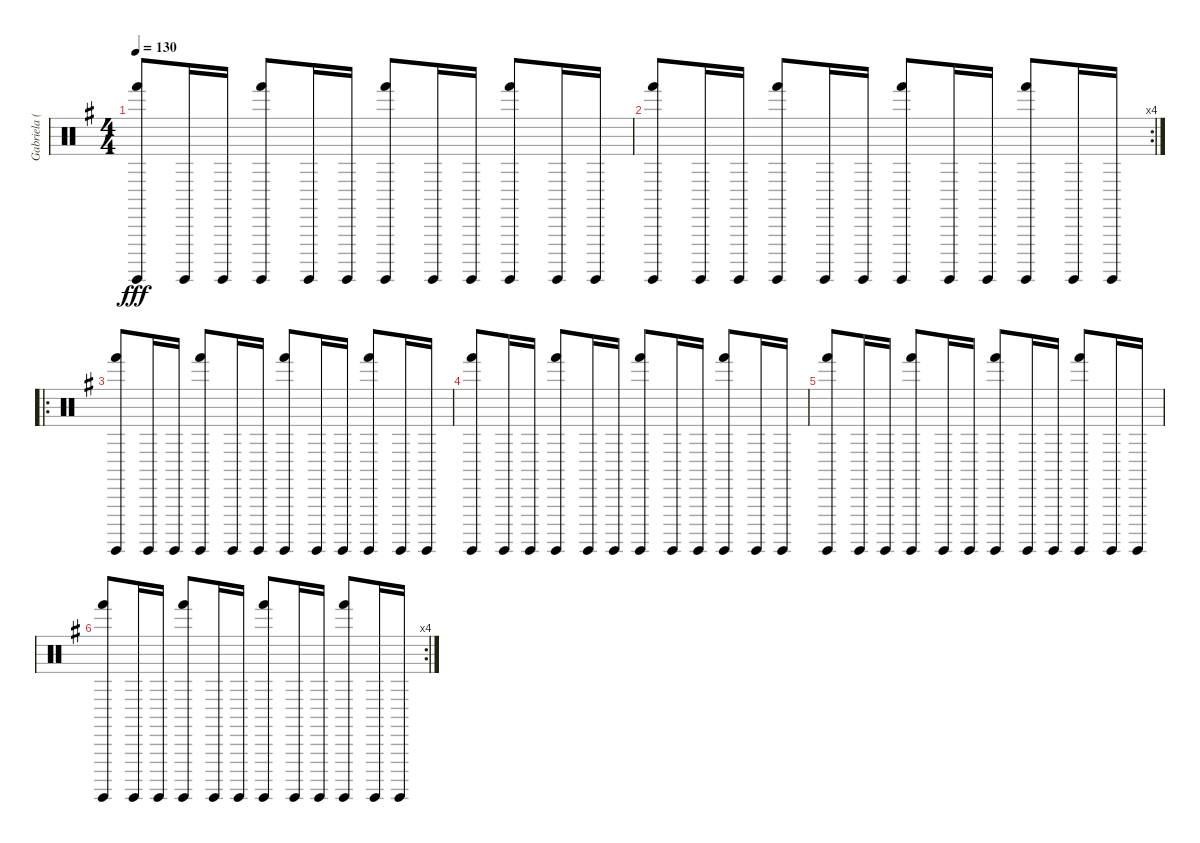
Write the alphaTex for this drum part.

\track ("Gabriela (Percussion)" "Gabriela (") {instrument percussion}
\staff {score}
\articulation defaults
\ts (4 4)
\tempo 130
\clef neutral
\ks eminor
("Hand (hit)" "Surdo (hit)").8{dy fff} "Surdo (hit)".16 "Surdo (hit)".16 ("Hand (hit)" "Surdo (hit)").8 "Surdo (hit)".16 "Surdo (hit)".16 ("Hand (hit)" "Surdo (hit)").8 "Surdo (hit)".16 "Surdo (hit)".16 ("Hand (hit)" "Surdo (hit)").8 "Surdo (hit)".16 "Surdo (hit)".16 |
\rc 4
("Hand (hit)" "Surdo (hit)").8 "Surdo (hit)".16 "Surdo (hit)".16 ("Hand (hit)" "Surdo (hit)").8 "Surdo (hit)".16 "Surdo (hit)".16 ("Hand (hit)" "Surdo (hit)").8 "Surdo (hit)".16 "Surdo (hit)".16 ("Hand (hit)" "Surdo (hit)").8 "Surdo (hit)".16 "Surdo (hit)".16 |
\ro
("Hand (hit)" "Surdo (hit)").8 "Surdo (hit)".16 "Surdo (hit)".16 ("Hand (hit)" "Surdo (hit)").8 "Surdo (hit)".16 "Surdo (hit)".16 ("Hand (hit)" "Surdo (hit)").8 "Surdo (hit)".16 "Surdo (hit)".16 ("Hand (hit)" "Surdo (hit)").8 "Surdo (hit)".16 "Surdo (hit)".16 |
("Hand (hit)" "Surdo (hit)").8 "Surdo (hit)".16 "Surdo (hit)".16 ("Hand (hit)" "Surdo (hit)").8 "Surdo (hit)".16 "Surdo (hit)".16 ("Hand (hit)" "Surdo (hit)").8 "Surdo (hit)".16 "Surdo (hit)".16 ("Hand (hit)" "Surdo (hit)").8 "Surdo (hit)".16 "Surdo (hit)".16 |
("Hand (hit)" "Surdo (hit)").8 "Surdo (hit)".16 "Surdo (hit)".16 ("Hand (hit)" "Surdo (hit)").8 "Surdo (hit)".16 "Surdo (hit)".16 ("Hand (hit)" "Surdo (hit)").8 "Surdo (hit)".16 "Surdo (hit)".16 ("Hand (hit)" "Surdo (hit)").8 "Surdo (hit)".16 "Surdo (hit)".16 |
\rc 4
("Hand (hit)" "Surdo (hit)").8 "Surdo (hit)".16 "Surdo (hit)".16 ("Hand (hit)" "Surdo (hit)").8 "Surdo (hit)".16 "Surdo (hit)".16 ("Hand (hit)" "Surdo (hit)").8 "Surdo (hit)".16 "Surdo (hit)".16 ("Hand (hit)" "Surdo (hit)").8 "Surdo (hit)".16 "Surdo (hit)".16
